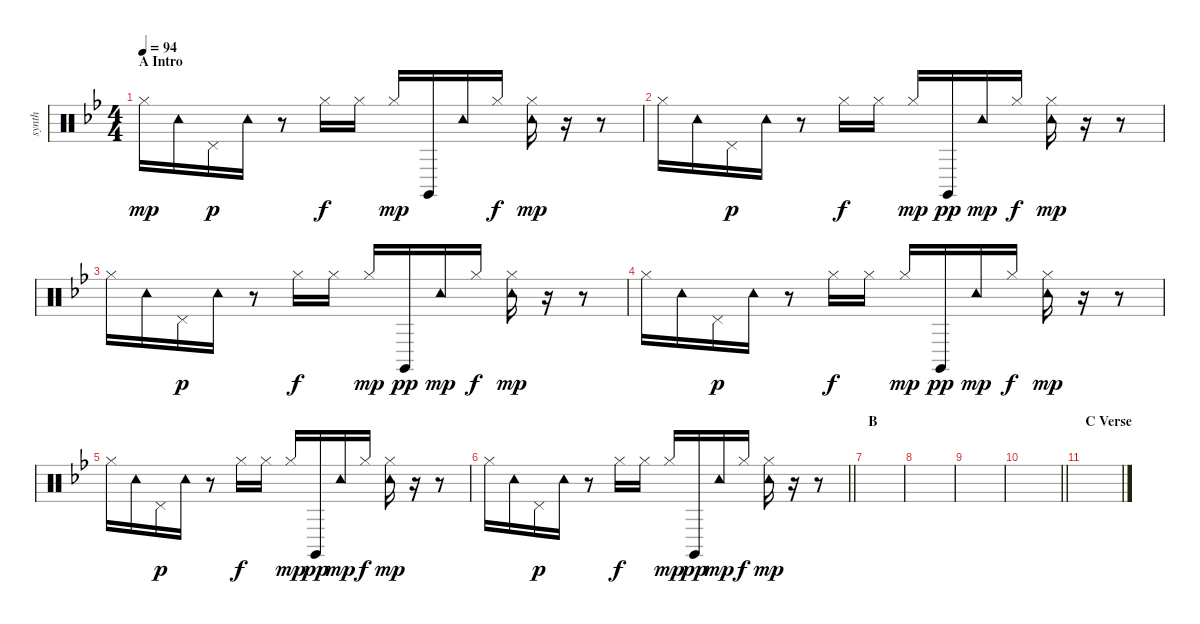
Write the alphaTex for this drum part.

\track ("synth" "synth") {instrument percussion}
\staff {score}
\articulation defaults
\ts (4 4)
\section ("" "A Intro")
\tempo 94
\clef neutral
\ks gminor "Hi-Hat (closed)".16{dy mp} "Tambourine (hit)".16 "Pedal Hi-Hat (hit)".16{dy p} "Tambourine (hit)".16
r.8 "Hi-Hat (closed)".16{dy f} "Hi-Hat (closed)".16 "Hi-Hat (closed)".16{dy mp} "Claves (hit)".16 "Tambourine (hit)".16 "Hi-Hat (closed)".16{dy f} ("Tambourine (hit)" "Hi-Hat (closed)").16{dy mp} r.16 r.8 |
"Hi-Hat (closed)".16 "Tambourine (hit)".16 "Pedal Hi-Hat (hit)".16{dy p} "Tambourine (hit)".16 r.8 "Hi-Hat (closed)".16{dy f} "Hi-Hat (closed)".16 "Hi-Hat (closed)".16{dy mp} "Claves (hit)".16{dy pp} "Tambourine (hit)".16{dy mp} "Hi-Hat (closed)".16{dy f} ("Tambourine (hit)" "Hi-Hat (closed)").16{dy mp} r.16 r.8 |
"Hi-Hat (closed)".16 "Tambourine (hit)".16 "Pedal Hi-Hat (hit)".16{dy p} "Tambourine (hit)".16 r.8 "Hi-Hat (closed)".16{dy f} "Hi-Hat (closed)".16 "Hi-Hat (closed)".16{dy mp} "Claves (hit)".16{dy pp} "Tambourine (hit)".16{dy mp} "Hi-Hat (closed)".16{dy f} ("Tambourine (hit)" "Hi-Hat (closed)").16{dy mp} r.16 r.8 |
"Hi-Hat (closed)".16 "Tambourine (hit)".16 "Pedal Hi-Hat (hit)".16{dy p} "Tambourine (hit)".16 r.8 "Hi-Hat (closed)".16{dy f} "Hi-Hat (closed)".16 "Hi-Hat (closed)".16{dy mp} "Claves (hit)".16{dy pp} "Tambourine (hit)".16{dy mp} "Hi-Hat (closed)".16{dy f} ("Tambourine (hit)" "Hi-Hat (closed)").16{dy mp} r.16 r.8 |
"Hi-Hat (closed)".16 "Tambourine (hit)".16 "Pedal Hi-Hat (hit)".16{dy p} "Tambourine (hit)".16 r.8 "Hi-Hat (closed)".16{dy f} "Hi-Hat (closed)".16 "Hi-Hat (closed)".16{dy mp} "Claves (hit)".16{dy pp} "Tambourine (hit)".16{dy mp} "Hi-Hat (closed)".16{dy f} ("Tambourine (hit)" "Hi-Hat (closed)").16{dy mp} r.16 r.8 |
\barLineRight lightlight "Hi-Hat (closed)".16 "Tambourine (hit)".16 "Pedal Hi-Hat (hit)".16{dy p} "Tambourine (hit)".16
r.8 "Hi-Hat (closed)".16{dy f} "Hi-Hat (closed)".16 "Hi-Hat (closed)".16{dy mp} "Claves (hit)".16{dy pp} "Tambourine (hit)".16{dy mp} "Hi-Hat (closed)".16{dy f} ("Tambourine (hit)" "Hi-Hat (closed)").16{dy mp} r.16 r.8 |
\section ("" "B")
|
|
|
\barLineRight lightlight
|
\section ("" "C Verse")
